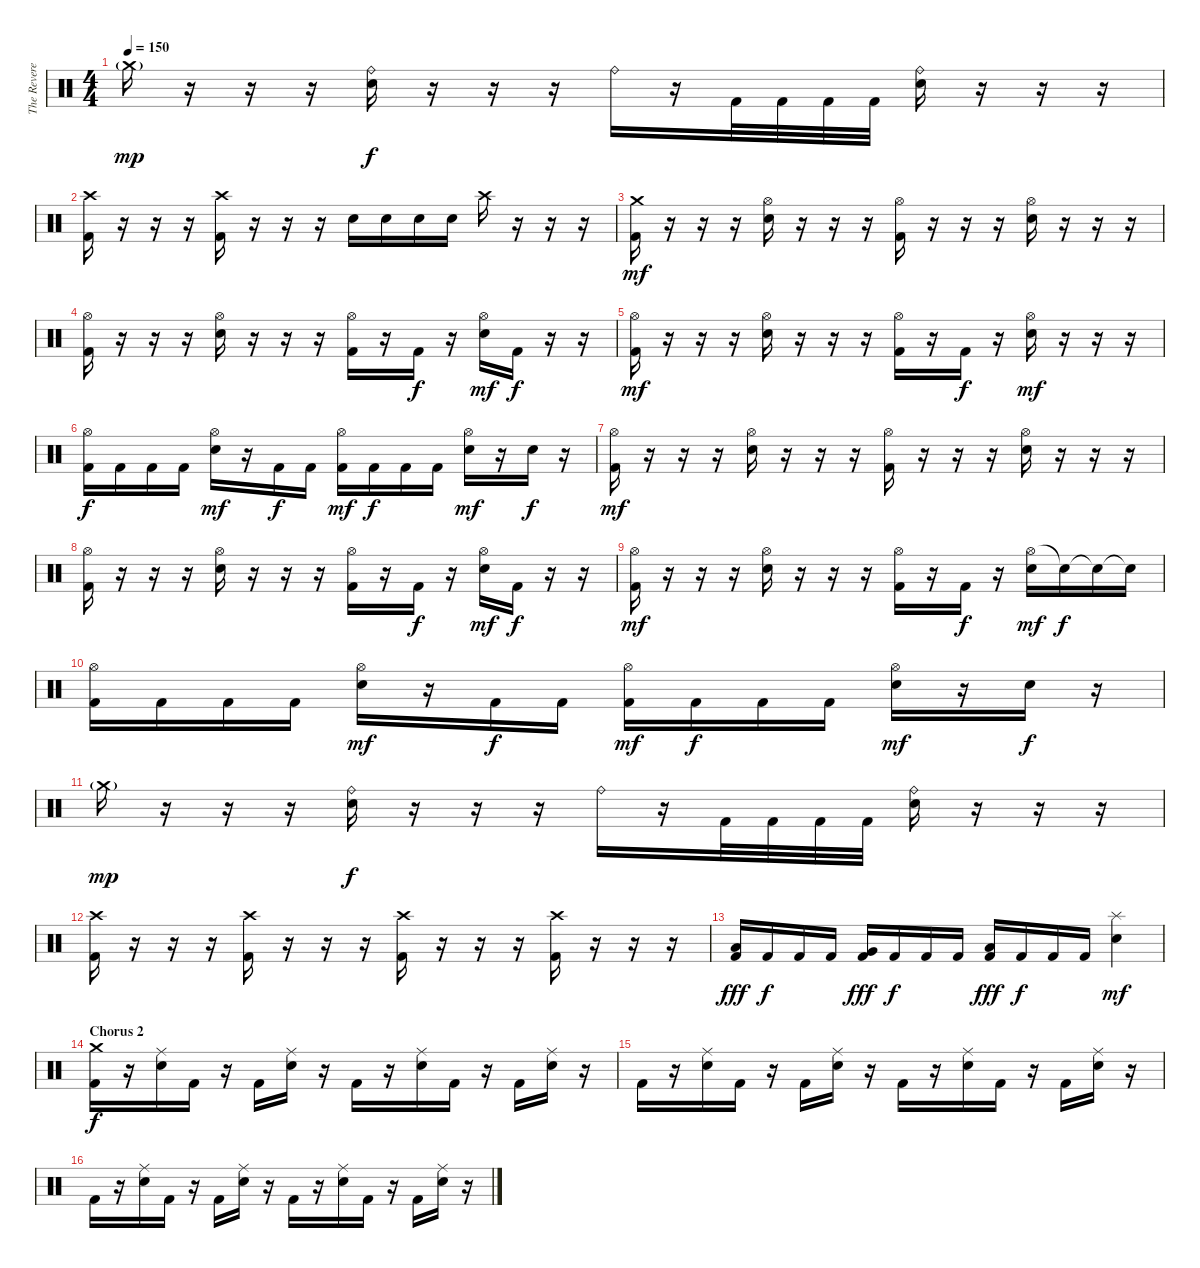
\track ("The Reverend" "The Revere") {instrument percussion}
\staff {score}
\articulation defaults
\ts (4 4)
\tempo 150
\clef neutral
\ks c "Crash medium (hit)"{g}.16{dy mp}
r.16 r.16 r.16 ("Ride (bell)" "Electric Snare (hit)").16{dy f} r.16 r.16 r.16 "Ride (bell)".16 r.16 "Kick (hit) 2".32 "Kick (hit) 2".32 "Kick (hit) 2".32 "Kick (hit) 2".32 ("Ride (bell)" "Electric Snare (hit)").16 r.16 r.16 r.16 |
("Crash high (hit)" "Kick (hit) 2").16 r.16 r.16 r.16 ("Crash high (hit)" "Kick (hit) 2").16 r.16 r.16 r.16 "Electric Snare (hit)".16 "Electric Snare (hit)".16 "Electric Snare (hit)".16 "Electric Snare (hit)".16 "Crash high (hit)".16 r.16 r.16 r.16 |
("Crash medium (hit)" "Kick (hit) 2").16{dy mf} r.16 r.16 r.16 ("Hi-Hat (open)" "Electric Snare (hit)").16 r.16 r.16 r.16 ("Hi-Hat (open)" "Kick (hit) 2").16 r.16 r.16 r.16 ("Hi-Hat (open)" "Electric Snare (hit)").16 r.16 r.16 r.16 |
("Hi-Hat (open)" "Kick (hit) 2").16 r.16 r.16 r.16 ("Hi-Hat (open)" "Electric Snare (hit)").16 r.16 r.16 r.16 ("Hi-Hat (open)" "Kick (hit) 2").16 r.16 "Kick (hit) 2".16{dy f} r.16 ("Hi-Hat (open)" "Electric Snare (hit)").16{dy mf} "Kick (hit) 2".16{dy f} r.16 r.16 |
("Hi-Hat (open)" "Kick (hit) 2").16{dy mf} r.16 r.16 r.16 ("Hi-Hat (open)" "Electric Snare (hit)").16 r.16 r.16 r.16 ("Hi-Hat (open)" "Kick (hit) 2").16 r.16 "Kick (hit) 2".16{dy f} r.16 ("Hi-Hat (open)" "Electric Snare (hit)").16{dy mf} r.16 r.16 r.16 |
("Hi-Hat (open)" "Kick (hit) 2").16{dy f} "Kick (hit) 2".16 "Kick (hit) 2".16 "Kick (hit) 2".16 ("Hi-Hat (open)" "Electric Snare (hit)").16{dy mf} r.16 "Kick (hit) 2".16{dy f} "Kick (hit) 2".16 ("Hi-Hat (open)" "Kick (hit) 2").16{dy mf} "Kick (hit) 2".16{dy f} "Kick (hit) 2".16 "Kick (hit) 2".16 ("Hi-Hat (open)" "Electric Snare (hit)").16{dy mf} r.16 "Electric Snare (hit)".16{dy f} r.16 |
("Hi-Hat (open)" "Kick (hit) 2").16{dy mf} r.16 r.16 r.16 ("Hi-Hat (open)" "Electric Snare (hit)").16 r.16 r.16 r.16 ("Hi-Hat (open)" "Kick (hit) 2").16 r.16 r.16 r.16 ("Hi-Hat (open)" "Electric Snare (hit)").16 r.16 r.16 r.16 |
("Hi-Hat (open)" "Kick (hit) 2").16 r.16 r.16 r.16 ("Hi-Hat (open)" "Electric Snare (hit)").16 r.16 r.16 r.16 ("Hi-Hat (open)" "Kick (hit) 2").16 r.16 "Kick (hit) 2".16{dy f} r.16 ("Hi-Hat (open)" "Electric Snare (hit)").16{dy mf} "Kick (hit) 2".16{dy f} r.16 r.16 |
("Hi-Hat (open)" "Kick (hit) 2").16{dy mf} r.16 r.16 r.16 ("Hi-Hat (open)" "Electric Snare (hit)").16 r.16 r.16 r.16 ("Hi-Hat (open)" "Kick (hit) 2").16 r.16 "Kick (hit) 2".16{dy f} r.16 ("Hi-Hat (open)" "Electric Snare (hit)").16{dy mf} "Snare (hit)"{t}.16{dy f} "Snare (hit)"{t}.16 "Snare (hit)"{t}.16 |
("Hi-Hat (open)" "Kick (hit) 2").16 "Kick (hit) 2".16 "Kick (hit) 2".16 "Kick (hit) 2".16 ("Hi-Hat (open)" "Electric Snare (hit)").16{dy mf} r.16 "Kick (hit) 2".16{dy f} "Kick (hit) 2".16 ("Hi-Hat (open)" "Kick (hit) 2").16{dy mf} "Kick (hit) 2".16{dy f} "Kick (hit) 2".16 "Kick (hit) 2".16 ("Hi-Hat (open)" "Electric Snare (hit)").16{dy mf} r.16 "Electric Snare (hit)".16{dy f} r.16 |
"Crash medium (hit)"{g}.16{dy mp} r.16 r.16 r.16 ("Ride (bell)" "Electric Snare (hit)").16{dy f} r.16 r.16 r.16 "Ride (bell)".16 r.16 "Kick (hit) 2".32 "Kick (hit) 2".32 "Kick (hit) 2".32 "Kick (hit) 2".32 ("Ride (bell)" "Electric Snare (hit)").16 r.16 r.16 r.16 |
("Crash high (hit)" "Kick (hit) 2").16 r.16 r.16 r.16 ("Crash high (hit)" "Kick (hit) 2").16 r.16 r.16 r.16 ("Crash high (hit)" "Kick (hit) 2").16 r.16 r.16 r.16 ("Crash high (hit)" "Kick (hit) 2").16 r.16 r.16 r.16 |
("Low Floor Tom (hit)" "Kick (hit) 2").16{dy fff} "Kick (hit) 2".16{dy f} "Kick (hit) 2".16 "Kick (hit) 2".16 ("Very Low Tom (hit)" "Kick (hit) 2").16{dy fff} "Kick (hit) 2".16{dy f} "Kick (hit) 2".16 "Kick (hit) 2".16 ("Low Tom (hit)" "Kick (hit) 2").16{dy fff} "Kick (hit) 2".16{dy f} "Kick (hit) 2".16 "Kick (hit) 2".16 ("Splash (hit)" "Electric Snare (hit)").4{dy mf} |
\section ("" "Chorus 2")
("Crash medium (hit)" "Kick (hit) 2").16{dy f} r.16 ("Ride (middle)" "Electric Snare (hit)").16 "Kick (hit) 2".16 r.16 "Kick (hit) 2".16 ("Ride (middle)" "Electric Snare (hit)").16 r.16 "Kick (hit) 2".16 r.16 ("Ride (middle)" "Electric Snare (hit)").16 "Kick (hit) 2".16 r.16 "Kick (hit) 2".16 ("Ride (middle)" "Electric Snare (hit)").16 r.16 |
"Kick (hit) 2".16 r.16 ("Ride (middle)" "Electric Snare (hit)").16 "Kick (hit) 2".16 r.16 "Kick (hit) 2".16 ("Ride (middle)" "Electric Snare (hit)").16 r.16 "Kick (hit) 2".16 r.16 ("Ride (middle)" "Electric Snare (hit)").16 "Kick (hit) 2".16 r.16 "Kick (hit) 2".16 ("Ride (middle)" "Electric Snare (hit)").16 r.16 |
"Kick (hit) 2".16 r.16 ("Ride (middle)" "Electric Snare (hit)").16 "Kick (hit) 2".16 r.16 "Kick (hit) 2".16 ("Ride (middle)" "Electric Snare (hit)").16 r.16 "Kick (hit) 2".16 r.16 ("Ride (middle)" "Electric Snare (hit)").16 "Kick (hit) 2".16 r.16 "Kick (hit) 2".16 ("Ride (middle)" "Electric Snare (hit)").16 r.16
